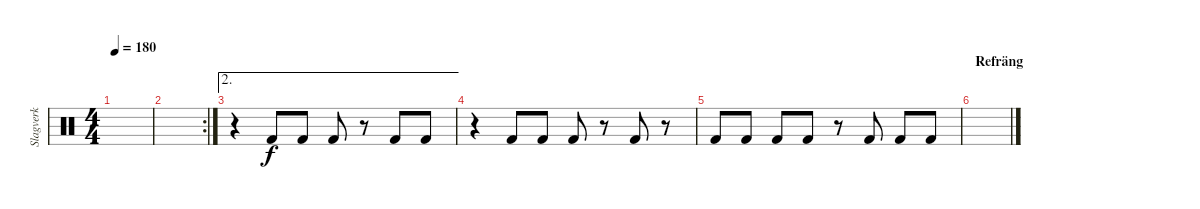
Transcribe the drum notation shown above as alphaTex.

\track ("Slagverk" "Slagverk") {instrument percussion}
\staff {score}
\articulation defaults
\ts (4 4)
\tempo 180
\clef neutral
\ks c
|
\rc 2
|
\ae 2
r.4 "Kick (hit) 2".8 "Kick (hit) 2".8 "Kick (hit) 2".8 r.8 "Kick (hit) 2".8 "Kick (hit) 2".8 |
r.4 "Kick (hit) 2".8 "Kick (hit) 2".8 "Kick (hit) 2".8 r.8 "Kick (hit) 2".8 r.8 |
"Kick (hit) 2".8 "Kick (hit) 2".8 "Kick (hit) 2".8 "Kick (hit) 2".8 r.8 "Kick (hit) 2".8 "Kick (hit) 2".8 "Kick (hit) 2".8 |
\section ("" "Refräng")
